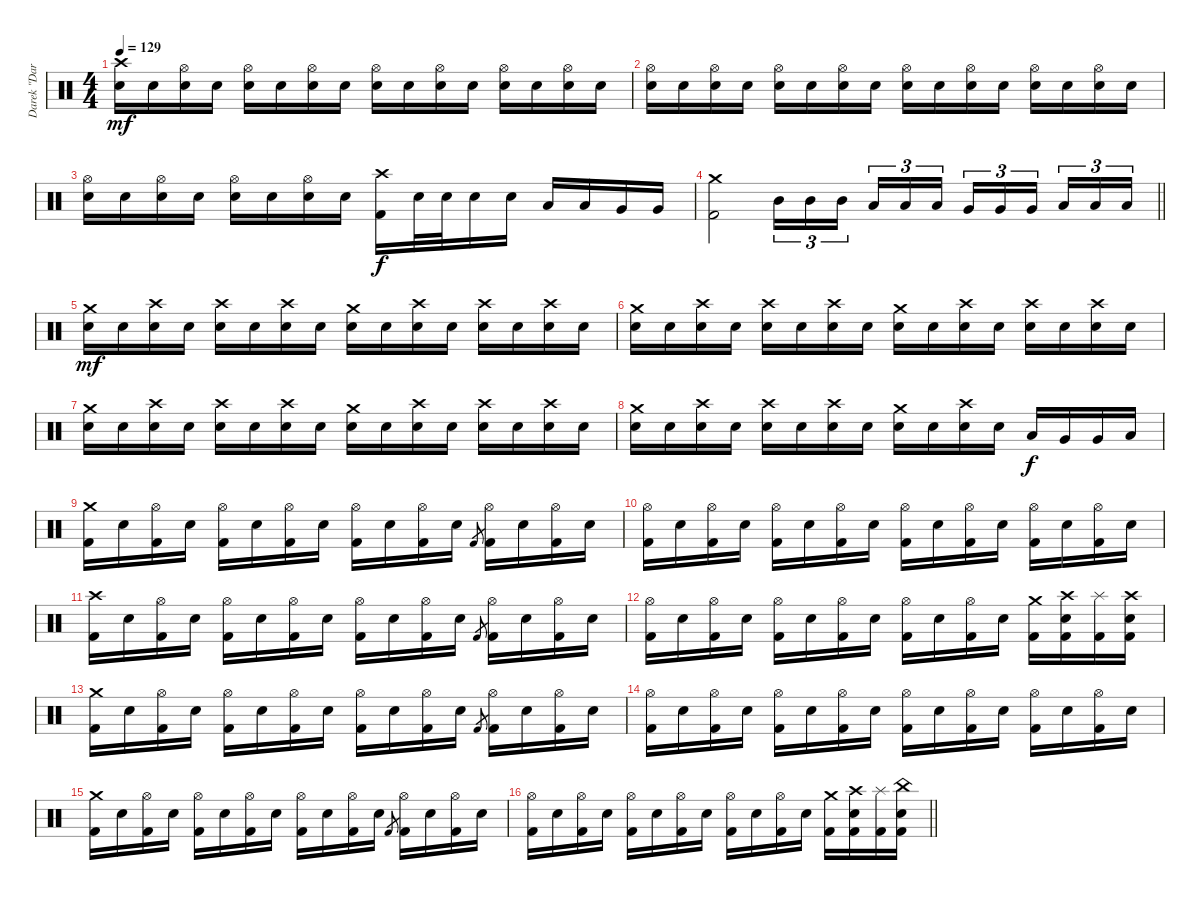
\track ("Darek \"Daray\" Brzozowski " "Darek \"Dar") {instrument percussion}
\staff {score}
\articulation defaults
\ts (4 4)
\tempo 129
\clef neutral
\ks c
("Crash high (hit)" "Electric Snare (hit)").16{dy mf} "Electric Snare (hit)".16 ("Hi-Hat (open)" "Electric Snare (hit)").16 "Electric Snare (hit)".16 ("Hi-Hat (open)" "Electric Snare (hit)").16 "Electric Snare (hit)".16 ("Hi-Hat (open)" "Electric Snare (hit)").16 "Electric Snare (hit)".16 ("Hi-Hat (open)" "Electric Snare (hit)").16 "Electric Snare (hit)".16 ("Hi-Hat (open)" "Electric Snare (hit)").16 "Electric Snare (hit)".16 ("Hi-Hat (open)" "Electric Snare (hit)").16 "Electric Snare (hit)".16 ("Hi-Hat (open)" "Electric Snare (hit)").16 "Electric Snare (hit)".16 |
("Hi-Hat (open)" "Electric Snare (hit)").16 "Electric Snare (hit)".16 ("Hi-Hat (open)" "Electric Snare (hit)").16 "Electric Snare (hit)".16 ("Hi-Hat (open)" "Electric Snare (hit)").16 "Electric Snare (hit)".16 ("Hi-Hat (open)" "Electric Snare (hit)").16 "Electric Snare (hit)".16 ("Hi-Hat (open)" "Electric Snare (hit)").16 "Electric Snare (hit)".16 ("Hi-Hat (open)" "Electric Snare (hit)").16 "Electric Snare (hit)".16 ("Hi-Hat (open)" "Electric Snare (hit)").16 "Electric Snare (hit)".16 ("Hi-Hat (open)" "Electric Snare (hit)").16 "Electric Snare (hit)".16 |
("Hi-Hat (open)" "Electric Snare (hit)").16 "Electric Snare (hit)".16 ("Hi-Hat (open)" "Electric Snare (hit)").16 "Electric Snare (hit)".16 ("Hi-Hat (open)" "Electric Snare (hit)").16 "Electric Snare (hit)".16 ("Hi-Hat (open)" "Electric Snare (hit)").16 "Electric Snare (hit)".16 ("Crash high (hit)" "Kick (hit) 2").16{dy f} "Electric Snare (hit)".32 "Electric Snare (hit)".32 "Electric Snare (hit)".16 "Electric Snare (hit)".16 "Low Tom (hit)".16 "Low Tom (hit)".16 "Very Low Tom (hit)".16 "Very Low Tom (hit)".16 |
\barLineRight lightlight
("Crash medium (hit)" "Kick (hit) 2").2 "Mid Tom (hit)".16{tu (3 2)} "Mid Tom (hit)".16{tu (3 2)} "Mid Tom (hit)".16{tu (3 2) beam splitsecondary} "Low Tom (hit)".16{tu (3 2)} "Low Tom (hit)".16{tu (3 2)} "Low Tom (hit)".16{tu (3 2)} "Very Low Tom (hit)".16{tu (3 2)} "Very Low Tom (hit)".16{tu (3 2)} "Very Low Tom (hit)".16{tu (3 2) beam splitsecondary} "Low Floor Tom (hit)".16{tu (3 2)} "Low Floor Tom (hit)".16{tu (3 2)} "Low Floor Tom (hit)".16{tu (3 2)} |
("Crash medium (hit)" "Electric Snare (hit)").16{dy mf} "Electric Snare (hit)".16 ("Crash high (hit)" "Electric Snare (hit)").16 "Electric Snare (hit)".16 ("Crash high (hit)" "Electric Snare (hit)").16 "Electric Snare (hit)".16 ("Crash high (hit)" "Electric Snare (hit)").16 "Electric Snare (hit)".16 ("Crash medium (hit)" "Electric Snare (hit)").16 "Electric Snare (hit)".16 ("Crash high (hit)" "Electric Snare (hit)").16 "Electric Snare (hit)".16 ("Crash high (hit)" "Electric Snare (hit)").16 "Electric Snare (hit)".16 ("Crash high (hit)" "Electric Snare (hit)").16 "Electric Snare (hit)".16 |
("Crash medium (hit)" "Electric Snare (hit)").16 "Electric Snare (hit)".16 ("Crash high (hit)" "Electric Snare (hit)").16 "Electric Snare (hit)".16 ("Crash high (hit)" "Electric Snare (hit)").16 "Electric Snare (hit)".16 ("Crash high (hit)" "Electric Snare (hit)").16 "Electric Snare (hit)".16 ("Crash medium (hit)" "Electric Snare (hit)").16 "Electric Snare (hit)".16 ("Crash high (hit)" "Electric Snare (hit)").16 "Electric Snare (hit)".16 ("Crash high (hit)" "Electric Snare (hit)").16 "Electric Snare (hit)".16 ("Crash high (hit)" "Electric Snare (hit)").16 "Electric Snare (hit)".16 |
("Crash medium (hit)" "Electric Snare (hit)").16 "Electric Snare (hit)".16 ("Crash high (hit)" "Electric Snare (hit)").16 "Electric Snare (hit)".16 ("Crash high (hit)" "Electric Snare (hit)").16 "Electric Snare (hit)".16 ("Crash high (hit)" "Electric Snare (hit)").16 "Electric Snare (hit)".16 ("Crash medium (hit)" "Electric Snare (hit)").16 "Electric Snare (hit)".16 ("Crash high (hit)" "Electric Snare (hit)").16 "Electric Snare (hit)".16 ("Crash high (hit)" "Electric Snare (hit)").16 "Electric Snare (hit)".16 ("Crash high (hit)" "Electric Snare (hit)").16 "Electric Snare (hit)".16 |
("Crash medium (hit)" "Electric Snare (hit)").16 "Electric Snare (hit)".16 ("Crash high (hit)" "Electric Snare (hit)").16 "Electric Snare (hit)".16 ("Crash high (hit)" "Electric Snare (hit)").16 "Electric Snare (hit)".16 ("Crash high (hit)" "Electric Snare (hit)").16 "Electric Snare (hit)".16 ("Crash medium (hit)" "Electric Snare (hit)").16 "Electric Snare (hit)".16 ("Crash high (hit)" "Electric Snare (hit)").16 "Electric Snare (hit)".16 "Low Tom (hit)".16{dy f} "Very Low Tom (hit)".16 "Very Low Tom (hit)".16 "Low Floor Tom (hit)".16 |
("Crash medium (hit)" "Kick (hit) 2").16 "Electric Snare (hit)".16 ("Hi-Hat (open)" "Kick (hit) 2").16 "Electric Snare (hit)".16 ("Hi-Hat (open)" "Kick (hit) 2").16 "Electric Snare (hit)".16 ("Hi-Hat (open)" "Kick (hit) 2").16 "Electric Snare (hit)".16 ("Hi-Hat (open)" "Kick (hit) 2").16 "Electric Snare (hit)".16 ("Hi-Hat (open)" "Kick (hit) 2").16 "Electric Snare (hit)".16 "Kick (hit) 2".8{gr} ("Hi-Hat (open)" "Kick (hit) 2").16 "Electric Snare (hit)".16 ("Hi-Hat (open)" "Kick (hit) 2").16 "Electric Snare (hit)".16 |
("Hi-Hat (open)" "Kick (hit) 2").16 "Electric Snare (hit)".16 ("Hi-Hat (open)" "Kick (hit) 2").16 "Electric Snare (hit)".16 ("Hi-Hat (open)" "Kick (hit) 2").16 "Electric Snare (hit)".16 ("Hi-Hat (open)" "Kick (hit) 2").16 "Electric Snare (hit)".16 ("Hi-Hat (open)" "Kick (hit) 2").16 "Electric Snare (hit)".16 ("Hi-Hat (open)" "Kick (hit) 2").16 "Electric Snare (hit)".16 ("Hi-Hat (open)" "Kick (hit) 2").16 "Electric Snare (hit)".16 ("Hi-Hat (open)" "Kick (hit) 2").16 "Electric Snare (hit)".16 |
("Crash high (hit)" "Kick (hit) 2").16 "Electric Snare (hit)".16 ("Hi-Hat (open)" "Kick (hit) 2").16 "Electric Snare (hit)".16 ("Hi-Hat (open)" "Kick (hit) 2").16 "Electric Snare (hit)".16 ("Hi-Hat (open)" "Kick (hit) 2").16 "Electric Snare (hit)".16 ("Hi-Hat (open)" "Kick (hit) 2").16 "Electric Snare (hit)".16 ("Hi-Hat (open)" "Kick (hit) 2").16 "Electric Snare (hit)".16 "Kick (hit) 2".8{gr} ("Hi-Hat (open)" "Kick (hit) 2").16 "Electric Snare (hit)".16 ("Hi-Hat (open)" "Kick (hit) 2").16 "Electric Snare (hit)".16 |
("Hi-Hat (open)" "Kick (hit) 2").16 "Electric Snare (hit)".16 ("Hi-Hat (open)" "Kick (hit) 2").16 "Electric Snare (hit)".16 ("Hi-Hat (open)" "Kick (hit) 2").16 "Electric Snare (hit)".16 ("Hi-Hat (open)" "Kick (hit) 2").16 "Electric Snare (hit)".16 ("Hi-Hat (open)" "Kick (hit) 2").16 "Electric Snare (hit)".16 ("Hi-Hat (open)" "Kick (hit) 2").16 "Electric Snare (hit)".16 ("Crash medium (hit)" "Kick (hit) 2").16 ("Crash high (hit)" "Electric Snare (hit)" "Kick (hit) 2").16 ("Splash (hit)" "Kick (hit) 2").16 ("Crash high (hit)" "Electric Snare (hit)" "Kick (hit) 2").16 |
("Crash medium (hit)" "Kick (hit) 2").16 "Electric Snare (hit)".16 ("Hi-Hat (open)" "Kick (hit) 2").16 "Electric Snare (hit)".16 ("Hi-Hat (open)" "Kick (hit) 2").16 "Electric Snare (hit)".16 ("Hi-Hat (open)" "Kick (hit) 2").16 "Electric Snare (hit)".16 ("Hi-Hat (open)" "Kick (hit) 2").16 "Electric Snare (hit)".16 ("Hi-Hat (open)" "Kick (hit) 2").16 "Electric Snare (hit)".16 "Kick (hit) 2".8{gr} ("Hi-Hat (open)" "Kick (hit) 2").16 "Electric Snare (hit)".16 ("Hi-Hat (open)" "Kick (hit) 2").16 "Electric Snare (hit)".16 |
("Hi-Hat (open)" "Kick (hit) 2").16 "Electric Snare (hit)".16 ("Hi-Hat (open)" "Kick (hit) 2").16 "Electric Snare (hit)".16 ("Hi-Hat (open)" "Kick (hit) 2").16 "Electric Snare (hit)".16 ("Hi-Hat (open)" "Kick (hit) 2").16 "Electric Snare (hit)".16 ("Hi-Hat (open)" "Kick (hit) 2").16 "Electric Snare (hit)".16 ("Hi-Hat (open)" "Kick (hit) 2").16 "Electric Snare (hit)".16 ("Hi-Hat (open)" "Kick (hit) 2").16 "Electric Snare (hit)".16 ("Hi-Hat (open)" "Kick (hit) 2").16 "Electric Snare (hit)".16 |
("Crash medium (hit)" "Kick (hit) 2").16 "Electric Snare (hit)".16 ("Hi-Hat (open)" "Kick (hit) 2").16 "Electric Snare (hit)".16 ("Hi-Hat (open)" "Kick (hit) 2").16 "Electric Snare (hit)".16 ("Hi-Hat (open)" "Kick (hit) 2").16 "Electric Snare (hit)".16 ("Hi-Hat (open)" "Kick (hit) 2").16 "Electric Snare (hit)".16 ("Hi-Hat (open)" "Kick (hit) 2").16 "Electric Snare (hit)".16 "Kick (hit) 2".8{gr} ("Hi-Hat (open)" "Kick (hit) 2").16 "Electric Snare (hit)".16 ("Hi-Hat (open)" "Kick (hit) 2").16 "Electric Snare (hit)".16 |
\barLineRight lightlight
("Hi-Hat (open)" "Kick (hit) 2").16 "Electric Snare (hit)".16 ("Hi-Hat (open)" "Kick (hit) 2").16 "Electric Snare (hit)".16 ("Hi-Hat (open)" "Kick (hit) 2").16 "Electric Snare (hit)".16 ("Hi-Hat (open)" "Kick (hit) 2").16 "Electric Snare (hit)".16 ("Hi-Hat (open)" "Kick (hit) 2").16 "Electric Snare (hit)".16 ("Hi-Hat (open)" "Kick (hit) 2").16 "Electric Snare (hit)".16 ("Crash medium (hit)" "Kick (hit) 2").16 ("Crash high (hit)" "Electric Snare (hit)" "Kick (hit) 2").16 ("Splash (hit)" "Kick (hit) 2").16 ("China (hit)" "Electric Snare (hit)" "Kick (hit) 2").16
